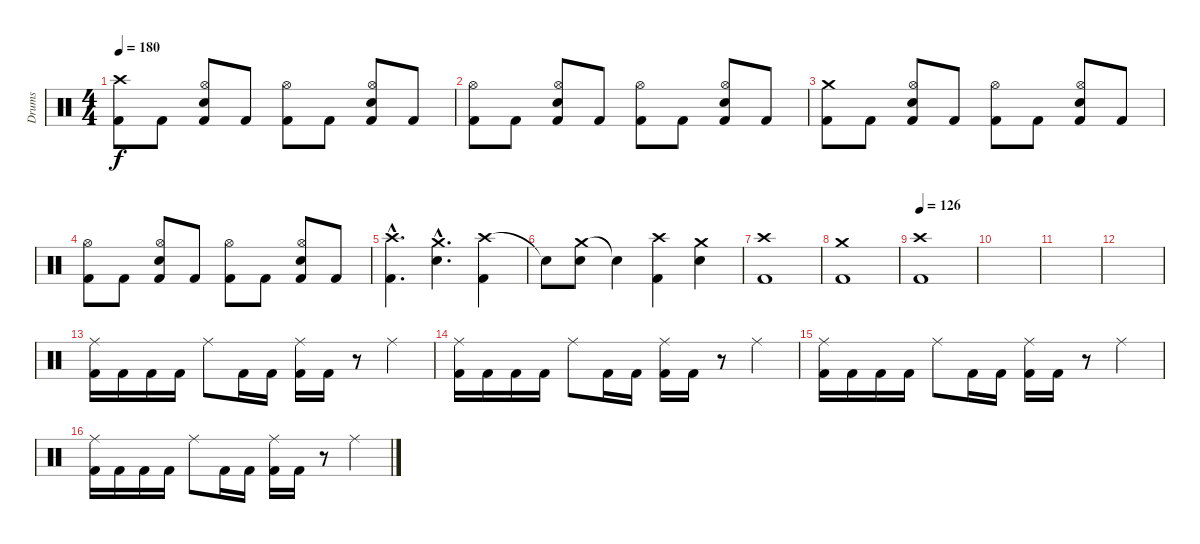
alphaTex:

\track ("Drums" "Drums") {instrument percussion}
\staff {score}
\articulation defaults
\ts (4 4)
\tempo 180
\clef neutral
\ks c
("Crash high (hit)" "Kick (hit) 2").8{dy f} "Kick (hit) 2".8 ("Hi-Hat (open)" "Electric Snare (hit)" "Kick (hit) 2").8 "Kick (hit) 2".8 ("Hi-Hat (open)" "Kick (hit) 2").8 "Kick (hit) 2".8 ("Hi-Hat (open)" "Electric Snare (hit)" "Kick (hit) 2").8 "Kick (hit) 2".8 |
("Hi-Hat (open)" "Kick (hit) 2").8 "Kick (hit) 2".8 ("Hi-Hat (open)" "Electric Snare (hit)" "Kick (hit) 2").8 "Kick (hit) 2".8 ("Hi-Hat (open)" "Kick (hit) 2").8 "Kick (hit) 2".8 ("Hi-Hat (open)" "Electric Snare (hit)" "Kick (hit) 2").8 "Kick (hit) 2".8 |
("Crash medium (hit)" "Kick (hit) 2").8 "Kick (hit) 2".8 ("Hi-Hat (open)" "Electric Snare (hit)" "Kick (hit) 2").8 "Kick (hit) 2".8 ("Hi-Hat (open)" "Kick (hit) 2").8 "Kick (hit) 2".8 ("Hi-Hat (open)" "Electric Snare (hit)" "Kick (hit) 2").8 "Kick (hit) 2".8 |
("Hi-Hat (open)" "Kick (hit) 2").8 "Kick (hit) 2".8 ("Hi-Hat (open)" "Electric Snare (hit)" "Kick (hit) 2").8 "Kick (hit) 2".8 ("Hi-Hat (open)" "Kick (hit) 2").8 "Kick (hit) 2".8 ("Hi-Hat (open)" "Electric Snare (hit)" "Kick (hit) 2").8 "Kick (hit) 2".8 |
("Crash high (hit)"{hac} "Kick (hit) 2"{hac}).4{d} ("Crash medium (hit)"{hac} "Electric Snare (hit)"{hac}).4{d} ("Crash high (hit)" "Kick (hit) 2").4 |
"Snare (hit)"{t}.8 ("Crash medium (hit)" "Electric Snare (hit)").8 "Snare (hit)"{t}.4 ("Crash high (hit)" "Kick (hit) 2").4 ("Crash medium (hit)" "Electric Snare (hit)").4 |
("Crash high (hit)" "Kick (hit) 2").1 |
("Crash medium (hit)" "Kick (hit) 2").1 |
\tempo 126
("Crash high (hit)" "Kick (hit) 2").1 |
|
|
|
("Ride (middle)" "Kick (hit) 2").16 "Kick (hit) 2".16 "Kick (hit) 2".16 "Kick (hit) 2".16 "Ride (middle)".8 "Kick (hit) 2".16 "Kick (hit) 2".16 ("Ride (middle)" "Kick (hit) 2").16 "Kick (hit) 2".16 r.8 "Ride (middle)".4 |
("Ride (middle)" "Kick (hit) 2").16 "Kick (hit) 2".16 "Kick (hit) 2".16 "Kick (hit) 2".16 "Ride (middle)".8 "Kick (hit) 2".16 "Kick (hit) 2".16 ("Ride (middle)" "Kick (hit) 2").16 "Kick (hit) 2".16 r.8 "Ride (middle)".4 |
("Ride (middle)" "Kick (hit) 2").16 "Kick (hit) 2".16 "Kick (hit) 2".16 "Kick (hit) 2".16 "Ride (middle)".8 "Kick (hit) 2".16 "Kick (hit) 2".16 ("Ride (middle)" "Kick (hit) 2").16 "Kick (hit) 2".16 r.8 "Ride (middle)".4 |
("Ride (middle)" "Kick (hit) 2").16 "Kick (hit) 2".16 "Kick (hit) 2".16 "Kick (hit) 2".16 "Ride (middle)".8 "Kick (hit) 2".16 "Kick (hit) 2".16 ("Ride (middle)" "Kick (hit) 2").16 "Kick (hit) 2".16 r.8 "Ride (middle)".4
